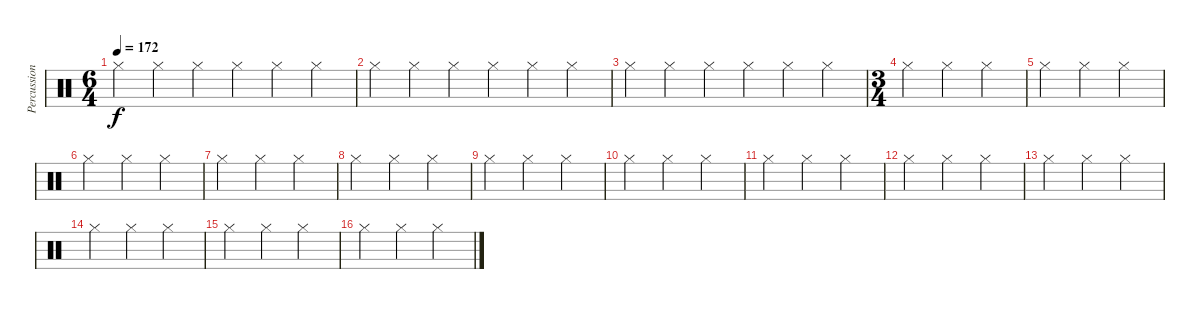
\track ("Percussion" "Percussion") {instrument percussion}
\staff {score}
\articulation defaults
\ts (6 4)
\tempo 172
\clef neutral
\ks c "Hi-Hat (closed)".4{dy f} "Hi-Hat (closed)".4 "Hi-Hat (closed)".4 "Hi-Hat (closed)".4 "Hi-Hat (closed)".4 "Hi-Hat (closed)".4
|
"Hi-Hat (closed)".4 "Hi-Hat (closed)".4 "Hi-Hat (closed)".4 "Hi-Hat (closed)".4 "Hi-Hat (closed)".4 "Hi-Hat (closed)".4 |
"Hi-Hat (closed)".4 "Hi-Hat (closed)".4 "Hi-Hat (closed)".4 "Hi-Hat (closed)".4 "Hi-Hat (closed)".4 "Hi-Hat (closed)".4 |
\ts (3 4)
"Hi-Hat (closed)".4 "Hi-Hat (closed)".4 "Hi-Hat (closed)".4 |
"Hi-Hat (closed)".4 "Hi-Hat (closed)".4 "Hi-Hat (closed)".4 |
"Hi-Hat (closed)".4 "Hi-Hat (closed)".4 "Hi-Hat (closed)".4 |
"Hi-Hat (closed)".4 "Hi-Hat (closed)".4 "Hi-Hat (closed)".4 |
"Hi-Hat (closed)".4 "Hi-Hat (closed)".4 "Hi-Hat (closed)".4 |
"Hi-Hat (closed)".4 "Hi-Hat (closed)".4 "Hi-Hat (closed)".4 |
"Hi-Hat (closed)".4 "Hi-Hat (closed)".4 "Hi-Hat (closed)".4 |
"Hi-Hat (closed)".4 "Hi-Hat (closed)".4 "Hi-Hat (closed)".4 |
"Hi-Hat (closed)".4 "Hi-Hat (closed)".4 "Hi-Hat (closed)".4 |
"Hi-Hat (closed)".4 "Hi-Hat (closed)".4 "Hi-Hat (closed)".4 |
"Hi-Hat (closed)".4 "Hi-Hat (closed)".4 "Hi-Hat (closed)".4 |
"Hi-Hat (closed)".4 "Hi-Hat (closed)".4 "Hi-Hat (closed)".4 |
"Hi-Hat (closed)".4 "Hi-Hat (closed)".4 "Hi-Hat (closed)".4
